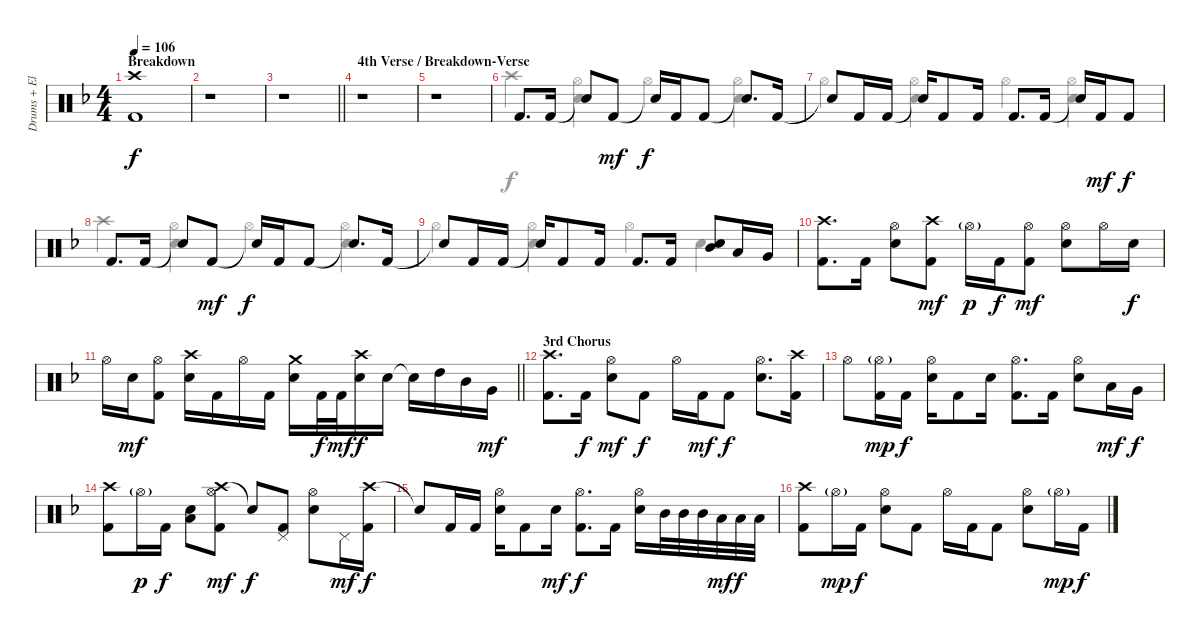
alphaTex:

\track ("Drums + Electronic drum pads" "Drums + El") {instrument percussion}
\staff {score}
\articulation defaults
\voice
\ts (4 4)
\section ("" "Breakdown")
\tempo 106
\clef neutral
\ks dminor
("Crash high (hit)" "Kick (hit) 2").1{dy f} |
r.1 |
\barLineRight lightlight
r.1 |
\section ("" "4th Verse / Breakdown-Verse")
r.1 |
r.1 |
"Kick (hit) 2".8{d} "Kick (hit) 2".16 "Snare (hit)"{t}.8 "Kick (hit) 2".8{dy mf} "Snare (hit)"{t}.16{dy f} "Kick (hit) 2".16 "Kick (hit) 2".8 "Snare (hit)"{t}.8{d} "Kick (hit) 2".16 |
"Snare (hit)"{t}.8 "Kick (hit) 2".16 "Kick (hit) 2".16 "Snare (hit)"{t}.16 "Kick (hit) 2".8 "Kick (hit) 2".16 "Kick (hit) 2".8{d} "Kick (hit) 2".16 "Snare (hit)"{t}.16 "Kick (hit) 2".16{dy mf} "Kick (hit) 2".8{dy f} |
"Kick (hit) 2".8{d} "Kick (hit) 2".16 "Snare (hit)"{t}.8 "Kick (hit) 2".8{dy mf} "Snare (hit)"{t}.16{dy f} "Kick (hit) 2".16 "Kick (hit) 2".8 "Snare (hit)"{t}.8{d} "Kick (hit) 2".16 |
"Snare (hit)"{t}.8 "Kick (hit) 2".16 "Kick (hit) 2".16 "Snare (hit)"{t}.16 "Kick (hit) 2".8 "Kick (hit) 2".16 "Kick (hit) 2".8{d} "Kick (hit) 2".16 ("Mid Tom (hit)" "Snare (hit)").8 "Low Tom (hit)".16 "Very Low Tom (hit)".16 |
("Crash high (hit)" "Kick (hit) 2").8{d} "Kick (hit) 2".16 ("Hi-Hat (open)" "Snare (hit) 2").8 ("Crash high (hit)" "Kick (hit) 2").8{dy mf} "Hi-Hat (open)"{g}.16{dy p} "Kick (hit) 2".16{dy f} ("Hi-Hat (open)" "Kick (hit) 2").8{dy mf} ("Hi-Hat (open)" "Snare (hit) 2").8 "Hi-Hat (open)".16 "Snare (hit) 2".16{dy f} |
\barLineRight lightlight "Hi-Hat (open)".16 "Snare (hit) 2".16{dy mf}
("Hi-Hat (open)" "Kick (hit) 2").8 ("Crash high (hit)" "Snare (hit) 2").16 "Kick (hit) 2".16 "Hi-Hat (open)".16 "Kick (hit) 2".16 ("Crash medium (hit)" "Snare (hit) 2").16 "Kick (hit) 2".32{dy f} "Kick (hit) 2".32{dy mf} ("Crash high (hit)" "Snare (hit) 2").16{dy f} "Snare (hit) 2".16 "Snare (hit)"{t}.16 "High Tom (hit)".16 "Mid Tom (hit)".16 "Very Low Tom (hit)".16{dy mf} |
\section ("" "3rd Chorus")
("Crash high (hit)" "Kick (hit) 2").8{d} "Kick (hit) 2".16{dy f} ("Hi-Hat (open)" "Snare (hit) 2").8{dy mf} "Kick (hit) 2".8{dy f} "Hi-Hat (open)".16 "Kick (hit) 2".16{dy mf} "Kick (hit) 2".8{dy f} ("Hi-Hat (open)" "Snare (hit) 2").8{d} ("Crash high (hit)" "Kick (hit) 2").16 |
"Hi-Hat (open)".8 ("Hi-Hat (open)"{g} "Kick (hit) 2").16{dy mp} "Kick (hit) 2".16{dy f} ("Hi-Hat (open)" "Snare (hit) 2").16 "Kick (hit) 2".8 "Snare (hit) 2".16 ("Hi-Hat (open)" "Kick (hit) 2").8{d} "Kick (hit) 2".16 ("Hi-Hat (open)" "Snare (hit) 2").8 "Low Tom (hit)".16{dy mf} "Very Low Tom (hit)".16{dy f} |
("Crash high (hit)" "Kick (hit) 2").8 "Hi-Hat (open)"{g}.16{dy p} "Kick (hit) 2".16{dy f} ("Low Floor Tom (hit)" "Snare (hit) 2").8 ("Crash high (hit)" "Hi-Hat (open)" "Kick (hit) 2").8{dy mf} "Snare (hit)"{t}.8{dy f} ("Pedal Hi-Hat (hit)" "Kick (hit) 2").8 ("Hi-Hat (open)" "Snare (hit) 2").8 "Pedal Hi-Hat (hit)".16{dy mf} ("Crash high (hit)" "Kick (hit) 2").16{dy f} |
"Snare (hit)"{t}.8 "Kick (hit) 2".16 "Kick (hit) 2".16 ("Hi-Hat (open)" "Snare (hit) 2").16 "Kick (hit) 2".8 "Snare (hit) 2".16{dy mf} ("Hi-Hat (open)" "Kick (hit) 2").8{d dy f} "Kick (hit) 2".16 ("Hi-Hat (open)" "Snare (hit) 2").16 "Mid Tom (hit)".32 "Mid Tom (hit)".32 "Mid Tom (hit)".32 "Low Tom (hit)".32{dy mf} "Low Tom (hit)".32{dy f} "Low Tom (hit)".32 |
("Crash high (hit)" "Kick (hit) 2").8 "Hi-Hat (open)"{g}.16{dy mp} "Kick (hit) 2".16{dy f} ("Hi-Hat (open)" "Snare (hit) 2").8 "Kick (hit) 2".8 "Hi-Hat (open)".16 "Kick (hit) 2".16 "Kick (hit) 2".8 ("Hi-Hat (open)" "Snare (hit) 2").8 "Hi-Hat (open)"{g}.16{dy mp} "Kick (hit) 2".16{dy f}
\voice
\clef neutral
\ottava regular
\simile none
\ks dminor
|
|
\barLineRight lightlight
|
|
|
"Crash high (hit)".4 ("Hi-Hat (open)" "Snare (hit) 2").4 "Hi-Hat (open)".4 ("Hi-Hat (open)" "Snare (hit) 2").4 |
"Hi-Hat (open)".4 ("Hi-Hat (open)" "Snare (hit) 2").4 "Hi-Hat (open)".4 ("Hi-Hat (open)" "Snare (hit) 2").4 |
"Crash high (hit)".4 ("Hi-Hat (open)" "Snare (hit) 2").4 "Hi-Hat (open)".4 ("Hi-Hat (open)" "Snare (hit) 2").4 |
"Hi-Hat (open)".4 ("Hi-Hat (open)" "Snare (hit) 2").4 "Hi-Hat (open)".4 "Snare (hit) 2".4 |
|
\barLineRight lightlight
|
|
|
|
|
